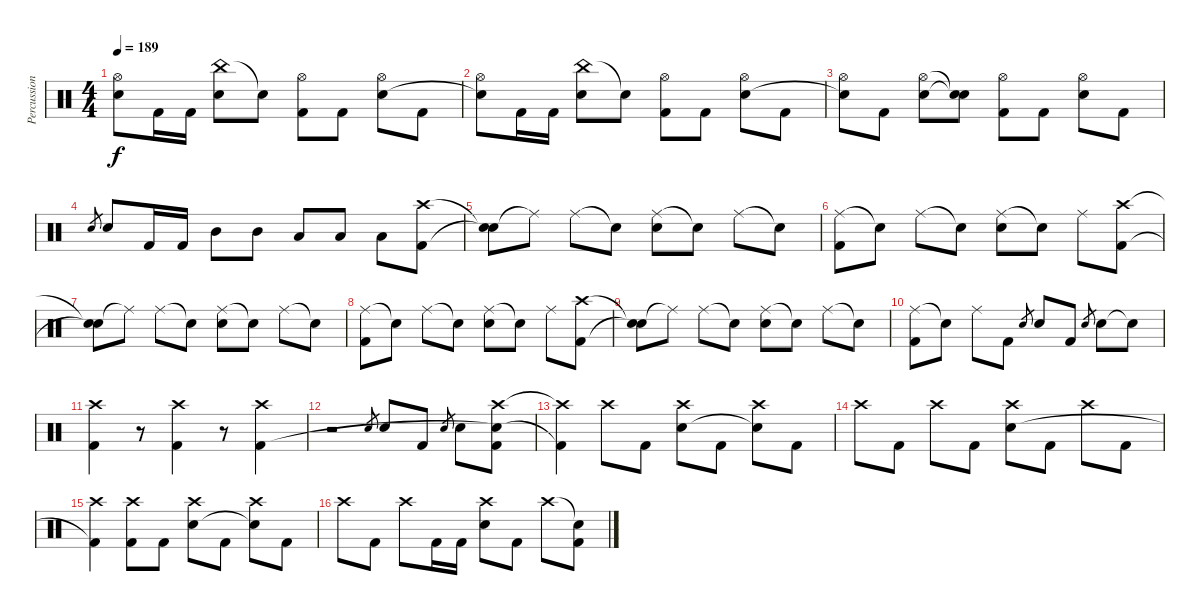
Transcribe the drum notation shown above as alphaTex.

\track ("Percussion" "Percussion") {instrument percussion}
\staff {score}
\articulation defaults
\ts (4 4)
\tempo 189
\clef neutral
\ks c
("Hi-Hat (open)" "Snare (hit)"{t}).8{dy f} "Kick (hit) 2".16 "Kick (hit) 2".16 ("China (hit)" "Electric Snare (hit)").8 "Snare (hit)"{t}.8 ("Hi-Hat (open)" "Kick (hit) 2").8 "Kick (hit) 2".8 ("Hi-Hat (open)" "Electric Snare (hit)").8 "Kick (hit) 2".8 |
("Hi-Hat (open)" "Snare (hit)"{t}).8 "Kick (hit) 2".16 "Kick (hit) 2".16 ("China (hit)" "Electric Snare (hit)").8 "Snare (hit)"{t}.8 ("Hi-Hat (open)" "Kick (hit) 2").8 "Kick (hit) 2".8 ("Hi-Hat (open)" "Electric Snare (hit)").8 "Kick (hit) 2".8 |
("Hi-Hat (open)" "Snare (hit)"{t}).8 "Kick (hit) 2".8 ("Hi-Hat (open)" "Electric Snare (hit)").8 ("Snare (hit)"{t} "Snare (hit)"{t}).8 ("Hi-Hat (open)" "Kick (hit) 2").8 "Kick (hit) 2".8 ("Hi-Hat (open)" "Electric Snare (hit)").8 "Kick (hit) 2".8 |
"Electric Snare (hit)".8{gr} "Electric Snare (hit)".8 "Kick (hit) 2".16 "Kick (hit) 2".16 "Mid Tom (hit)".8 "Mid Tom (hit)".8 "Low Tom (hit)".8 "Low Tom (hit)".8 "Low Floor Tom (hit)".8 ("Crash high (hit)" "Kick (hit) 2").8 |
("Snare (hit)"{t} "Snare (hit)"{t}).8 "Ride (middle)"{t}.8 "Ride (middle)".8 "Snare (hit)"{t}.8 ("Ride (middle)" "Electric Snare (hit)").8 "Snare (hit)"{t}.8 "Ride (middle)".8 "Snare (hit)"{t}.8 |
("Ride (middle)" "Kick (hit) 2").8 "Snare (hit)"{t}.8 "Ride (middle)".8 "Snare (hit)"{t}.8 ("Ride (middle)" "Electric Snare (hit)").8 "Snare (hit)"{t}.8 "Ride (middle)".8 ("Crash high (hit)" "Kick (hit) 2").8 |
("Snare (hit)"{t} "Snare (hit)"{t}).8 "Ride (middle)"{t}.8 "Ride (middle)".8 "Snare (hit)"{t}.8 ("Ride (middle)" "Electric Snare (hit)").8 "Snare (hit)"{t}.8 "Ride (middle)".8 "Snare (hit)"{t}.8 |
("Ride (middle)" "Kick (hit) 2").8 "Snare (hit)"{t}.8 "Ride (middle)".8 "Snare (hit)"{t}.8 ("Ride (middle)" "Electric Snare (hit)").8 "Snare (hit)"{t}.8 "Ride (middle)".8 ("Crash high (hit)" "Kick (hit) 2").8 |
("Snare (hit)"{t} "Snare (hit)"{t}).8 "Ride (middle)"{t}.8 "Ride (middle)".8 "Snare (hit)"{t}.8 ("Ride (middle)" "Electric Snare (hit)").8 "Snare (hit)"{t}.8 "Ride (middle)".8 "Snare (hit)"{t}.8 |
("Ride (middle)" "Kick (hit) 2").8 "Snare (hit)"{t}.8 "Ride (middle)".8 "Kick (hit) 2".8 "Electric Snare (hit)".8{gr} "Electric Snare (hit)".8 "Kick (hit) 2".8 "Electric Snare (hit)".8{gr} "Electric Snare (hit)".8 "Snare (hit)"{t}.8 |
("Crash high (hit)" "Kick (hit) 2").4 r.8 ("Crash high (hit)" "Kick (hit) 2").4 r.8 ("Crash high (hit)" "Kick (hit) 2").4 |
r.2 "Electric Snare (hit)".8{gr} "Electric Snare (hit)".8 "Kick (hit) 2".8 "Electric Snare (hit)".8{gr} "Electric Snare (hit)".8 ("Crash high (hit)" "Snare (hit)"{t} "Kick (hit) 2").8 |
("Crash high (hit)"{t} "Kick (hit) 2"{t}).4 "Crash high (hit)".8 "Kick (hit) 2".8 ("Crash high (hit)" "Electric Snare (hit)").8 "Kick (hit) 2".8 ("Crash high (hit)" "Snare (hit)"{t}).8 "Kick (hit) 2".8 |
"Crash high (hit)".8 "Kick (hit) 2".8 "Crash high (hit)".8 "Kick (hit) 2".8 ("Crash high (hit)" "Electric Snare (hit)").8 "Kick (hit) 2".8 "Crash high (hit)".8 "Kick (hit) 2".8 |
("Crash high (hit)" "Kick (hit) 2"{t}).4 ("Crash high (hit)" "Kick (hit) 2").8 "Kick (hit) 2".8 ("Crash high (hit)" "Electric Snare (hit)").8 "Kick (hit) 2".8 ("Crash high (hit)" "Snare (hit)"{t}).8 "Kick (hit) 2".8 |
"Crash high (hit)".8 "Kick (hit) 2".8 "Crash high (hit)".8 "Kick (hit) 2".16 "Kick (hit) 2".16 ("Crash high (hit)" "Electric Snare (hit)").8 "Kick (hit) 2".8 "Crash high (hit)".8 ("Snare (hit)"{t} "Kick (hit) 2").8
